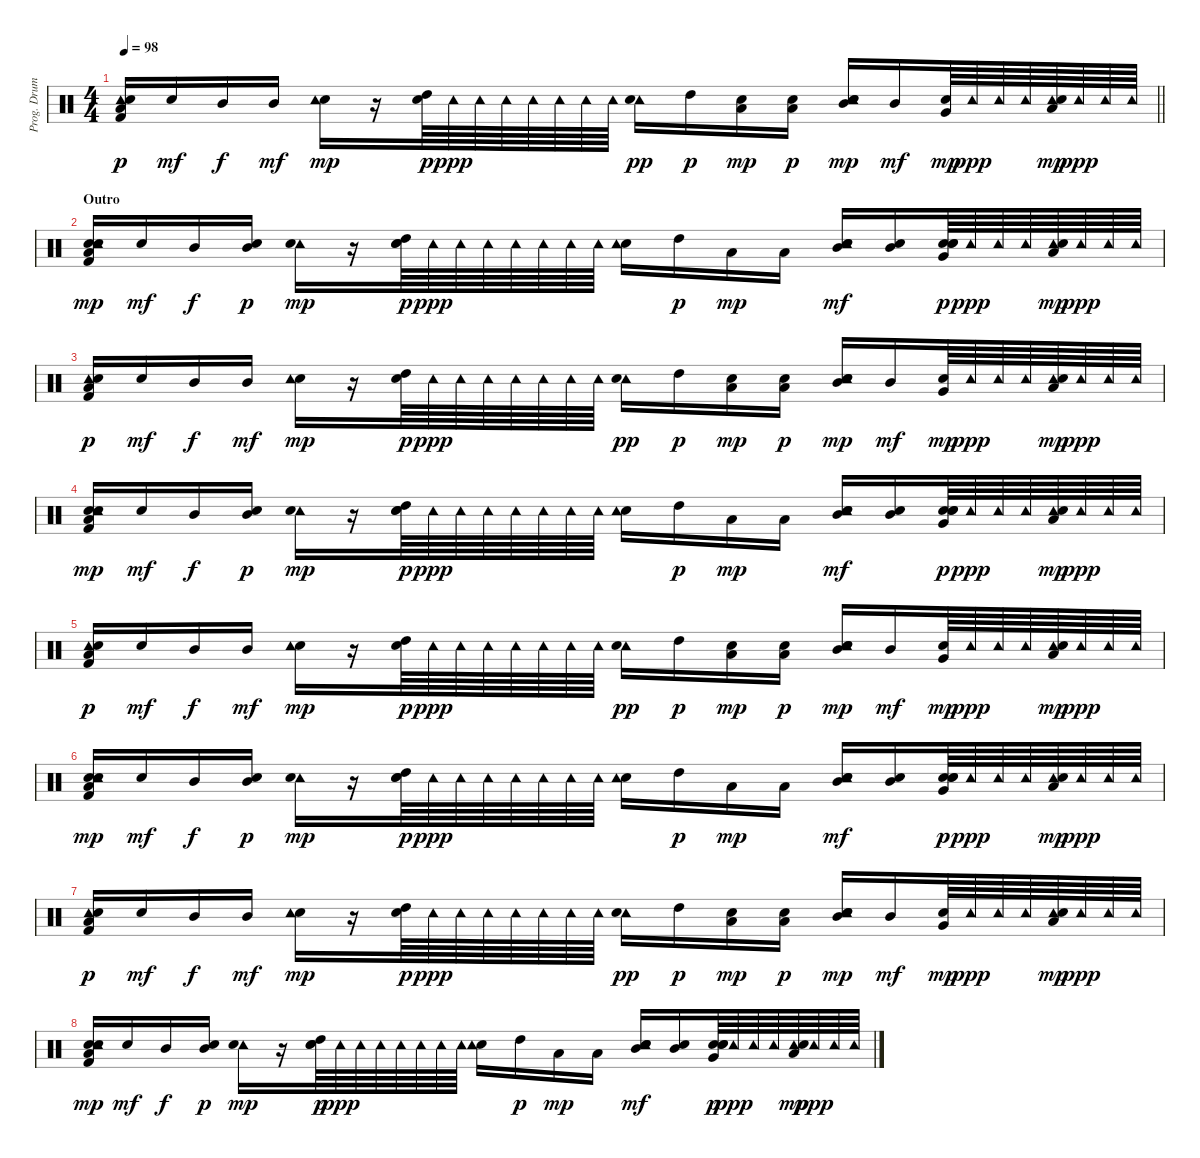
\track ("Prog. Drums" "Prog. Drum") {instrument percussion}
\staff {score}
\articulation defaults
\ts (4 4)
\tempo 98
\clef neutral
\barLineRight lightlight
\ks c
("Tambourine (hit)" "Snare (hit)" "Low Floor Tom (hit)" "Kick (hit) 2").16{dy p} "Snare (hit)".16{dy mf} "Mid Tom (hit)".16{dy f} "Mid Tom (hit)".16{dy mf} ("Snare (hit) 2" "Tambourine (hit)").16{dy mp} r.16 ("High Tom (hit)" "Snare (hit)").64{dy p} "Tambourine (hit)".64{dy ppp} "Tambourine (hit)".64 "Tambourine (hit)".64 "Tambourine (hit)".64 "Tambourine (hit)".64 "Tambourine (hit)".64 "Tambourine (hit)".64 ("Tambourine (hit)" "Snare (hit) 2").16{dy pp} "High Tom (hit)".16{dy p} ("Snare (hit)" "Low Tom (hit)").16{dy mp} ("Low Tom (hit)" "Snare (hit)").16{dy p} ("Snare (hit) 2" "Mid Tom (hit)" "Snare (hit)" "Tambourine (hit)").16{dy mp} "Mid Tom (hit)".16{dy mf} ("Snare (hit)" "Very Low Tom (hit)").64{dy mp} "Tambourine (hit)".64{dy ppp} "Tambourine (hit)".64 "Tambourine (hit)".64 ("Tambourine (hit)" "Snare (hit) 2" "Low Tom (hit)").64{dy mp} "Tambourine (hit)".64{dy ppp} "Tambourine (hit)".64 "Tambourine (hit)".64 |
\section ("" "Outro")
("Snare (hit)" "Snare (hit)" "Tambourine (hit)" "Kick (hit) 2" "Low Floor Tom (hit)").16{dy mp} "Snare (hit)".16{dy mf} "Mid Tom (hit)".16{dy f} ("Mid Tom (hit)" "Snare (hit)").16{dy p} ("Tambourine (hit)" "Snare (hit) 2").16{dy mp} r.16 ("High Tom (hit)" "Snare (hit)" "Snare (hit)").64{dy p} "Tambourine (hit)".64{dy ppp} "Tambourine (hit)".64 "Tambourine (hit)".64 "Tambourine (hit)".64 "Tambourine (hit)".64 "Tambourine (hit)".64 "Tambourine (hit)".64 ("Snare (hit) 2" "Tambourine (hit)").16 "High Tom (hit)".16{dy p} "Low Tom (hit)".16{dy mp} "Low Tom (hit)".16 ("Tambourine (hit)" "Snare (hit)" "Snare (hit) 2" "Mid Tom (hit)").16{dy mf} ("Snare (hit) 2" "Mid Tom (hit)").16 ("Snare (hit) 2" "Very Low Tom (hit)" "Snare (hit)" "Snare (hit)").64{dy p} "Tambourine (hit)".64{dy ppp} "Tambourine (hit)".64 "Tambourine (hit)".64 ("Tambourine (hit)" "Snare (hit) 2" "Low Tom (hit)").64{dy mp} "Tambourine (hit)".64{dy ppp} "Tambourine (hit)".64 "Tambourine (hit)".64 |
("Tambourine (hit)" "Snare (hit)" "Low Floor Tom (hit)" "Kick (hit) 2").16{dy p} "Snare (hit)".16{dy mf} "Mid Tom (hit)".16{dy f} "Mid Tom (hit)".16{dy mf} ("Snare (hit) 2" "Tambourine (hit)").16{dy mp} r.16 ("High Tom (hit)" "Snare (hit)").64{dy p} "Tambourine (hit)".64{dy ppp} "Tambourine (hit)".64 "Tambourine (hit)".64 "Tambourine (hit)".64 "Tambourine (hit)".64 "Tambourine (hit)".64 "Tambourine (hit)".64 ("Tambourine (hit)" "Snare (hit) 2").16{dy pp} "High Tom (hit)".16{dy p} ("Snare (hit)" "Low Tom (hit)").16{dy mp} ("Low Tom (hit)" "Snare (hit)").16{dy p} ("Snare (hit) 2" "Mid Tom (hit)" "Snare (hit)" "Tambourine (hit)").16{dy mp} "Mid Tom (hit)".16{dy mf} ("Snare (hit)" "Very Low Tom (hit)").64{dy mp} "Tambourine (hit)".64{dy ppp} "Tambourine (hit)".64 "Tambourine (hit)".64 ("Tambourine (hit)" "Snare (hit) 2" "Low Tom (hit)").64{dy mp} "Tambourine (hit)".64{dy ppp} "Tambourine (hit)".64 "Tambourine (hit)".64 |
("Snare (hit)" "Snare (hit)" "Tambourine (hit)" "Kick (hit) 2" "Low Floor Tom (hit)").16{dy mp} "Snare (hit)".16{dy mf} "Mid Tom (hit)".16{dy f} ("Mid Tom (hit)" "Snare (hit)").16{dy p} ("Tambourine (hit)" "Snare (hit) 2").16{dy mp} r.16 ("High Tom (hit)" "Snare (hit)" "Snare (hit)").64{dy p} "Tambourine (hit)".64{dy ppp} "Tambourine (hit)".64 "Tambourine (hit)".64 "Tambourine (hit)".64 "Tambourine (hit)".64 "Tambourine (hit)".64 "Tambourine (hit)".64 ("Snare (hit) 2" "Tambourine (hit)").16 "High Tom (hit)".16{dy p} "Low Tom (hit)".16{dy mp} "Low Tom (hit)".16 ("Tambourine (hit)" "Snare (hit)" "Snare (hit) 2" "Mid Tom (hit)").16{dy mf} ("Snare (hit) 2" "Mid Tom (hit)").16 ("Snare (hit) 2" "Very Low Tom (hit)" "Snare (hit)" "Snare (hit)").64{dy p} "Tambourine (hit)".64{dy ppp} "Tambourine (hit)".64 "Tambourine (hit)".64 ("Tambourine (hit)" "Snare (hit) 2" "Low Tom (hit)").64{dy mp} "Tambourine (hit)".64{dy ppp} "Tambourine (hit)".64 "Tambourine (hit)".64 |
("Tambourine (hit)" "Snare (hit)" "Low Floor Tom (hit)" "Kick (hit) 2").16{dy p} "Snare (hit)".16{dy mf} "Mid Tom (hit)".16{dy f} "Mid Tom (hit)".16{dy mf} ("Snare (hit) 2" "Tambourine (hit)").16{dy mp} r.16 ("High Tom (hit)" "Snare (hit)").64{dy p} "Tambourine (hit)".64{dy ppp} "Tambourine (hit)".64 "Tambourine (hit)".64 "Tambourine (hit)".64 "Tambourine (hit)".64 "Tambourine (hit)".64 "Tambourine (hit)".64 ("Tambourine (hit)" "Snare (hit) 2").16{dy pp} "High Tom (hit)".16{dy p} ("Snare (hit)" "Low Tom (hit)").16{dy mp} ("Low Tom (hit)" "Snare (hit)").16{dy p} ("Snare (hit) 2" "Mid Tom (hit)" "Snare (hit)" "Tambourine (hit)").16{dy mp} "Mid Tom (hit)".16{dy mf} ("Snare (hit)" "Very Low Tom (hit)").64{dy mp} "Tambourine (hit)".64{dy ppp} "Tambourine (hit)".64 "Tambourine (hit)".64 ("Tambourine (hit)" "Snare (hit) 2" "Low Tom (hit)").64{dy mp} "Tambourine (hit)".64{dy ppp} "Tambourine (hit)".64 "Tambourine (hit)".64 |
("Snare (hit)" "Snare (hit)" "Tambourine (hit)" "Kick (hit) 2" "Low Floor Tom (hit)").16{dy mp} "Snare (hit)".16{dy mf} "Mid Tom (hit)".16{dy f} ("Mid Tom (hit)" "Snare (hit)").16{dy p} ("Tambourine (hit)" "Snare (hit) 2").16{dy mp} r.16 ("High Tom (hit)" "Snare (hit)" "Snare (hit)").64{dy p} "Tambourine (hit)".64{dy ppp} "Tambourine (hit)".64 "Tambourine (hit)".64 "Tambourine (hit)".64 "Tambourine (hit)".64 "Tambourine (hit)".64 "Tambourine (hit)".64 ("Snare (hit) 2" "Tambourine (hit)").16 "High Tom (hit)".16{dy p} "Low Tom (hit)".16{dy mp} "Low Tom (hit)".16 ("Tambourine (hit)" "Snare (hit)" "Snare (hit) 2" "Mid Tom (hit)").16{dy mf} ("Snare (hit) 2" "Mid Tom (hit)").16 ("Snare (hit) 2" "Very Low Tom (hit)" "Snare (hit)" "Snare (hit)").64{dy p} "Tambourine (hit)".64{dy ppp} "Tambourine (hit)".64 "Tambourine (hit)".64 ("Tambourine (hit)" "Snare (hit) 2" "Low Tom (hit)").64{dy mp} "Tambourine (hit)".64{dy ppp} "Tambourine (hit)".64 "Tambourine (hit)".64 |
("Tambourine (hit)" "Snare (hit)" "Low Floor Tom (hit)" "Kick (hit) 2").16{dy p} "Snare (hit)".16{dy mf} "Mid Tom (hit)".16{dy f} "Mid Tom (hit)".16{dy mf} ("Snare (hit) 2" "Tambourine (hit)").16{dy mp} r.16 ("High Tom (hit)" "Snare (hit)").64{dy p} "Tambourine (hit)".64{dy ppp} "Tambourine (hit)".64 "Tambourine (hit)".64 "Tambourine (hit)".64 "Tambourine (hit)".64 "Tambourine (hit)".64 "Tambourine (hit)".64 ("Tambourine (hit)" "Snare (hit) 2").16{dy pp} "High Tom (hit)".16{dy p} ("Snare (hit)" "Low Tom (hit)").16{dy mp} ("Low Tom (hit)" "Snare (hit)").16{dy p} ("Snare (hit) 2" "Mid Tom (hit)" "Snare (hit)" "Tambourine (hit)").16{dy mp} "Mid Tom (hit)".16{dy mf} ("Snare (hit)" "Very Low Tom (hit)").64{dy mp} "Tambourine (hit)".64{dy ppp} "Tambourine (hit)".64 "Tambourine (hit)".64 ("Tambourine (hit)" "Snare (hit) 2" "Low Tom (hit)").64{dy mp} "Tambourine (hit)".64{dy ppp} "Tambourine (hit)".64 "Tambourine (hit)".64 |
("Snare (hit)" "Snare (hit)" "Tambourine (hit)" "Kick (hit) 2" "Low Floor Tom (hit)").16{dy mp} "Snare (hit)".16{dy mf} "Mid Tom (hit)".16{dy f} ("Mid Tom (hit)" "Snare (hit)").16{dy p} ("Tambourine (hit)" "Snare (hit) 2").16{dy mp} r.16 ("High Tom (hit)" "Snare (hit)" "Snare (hit)").64{dy p} "Tambourine (hit)".64{dy ppp} "Tambourine (hit)".64 "Tambourine (hit)".64 "Tambourine (hit)".64 "Tambourine (hit)".64 "Tambourine (hit)".64 "Tambourine (hit)".64 ("Snare (hit) 2" "Tambourine (hit)").16 "High Tom (hit)".16{dy p} "Low Tom (hit)".16{dy mp} "Low Tom (hit)".16 ("Tambourine (hit)" "Snare (hit)" "Snare (hit) 2" "Mid Tom (hit)").16{dy mf} ("Snare (hit) 2" "Mid Tom (hit)").16 ("Snare (hit) 2" "Very Low Tom (hit)" "Snare (hit)" "Snare (hit)").64{dy p} "Tambourine (hit)".64{dy ppp} "Tambourine (hit)".64 "Tambourine (hit)".64 ("Tambourine (hit)" "Snare (hit) 2" "Low Tom (hit)").64{dy mp} "Tambourine (hit)".64{dy ppp} "Tambourine (hit)".64 "Tambourine (hit)".64
